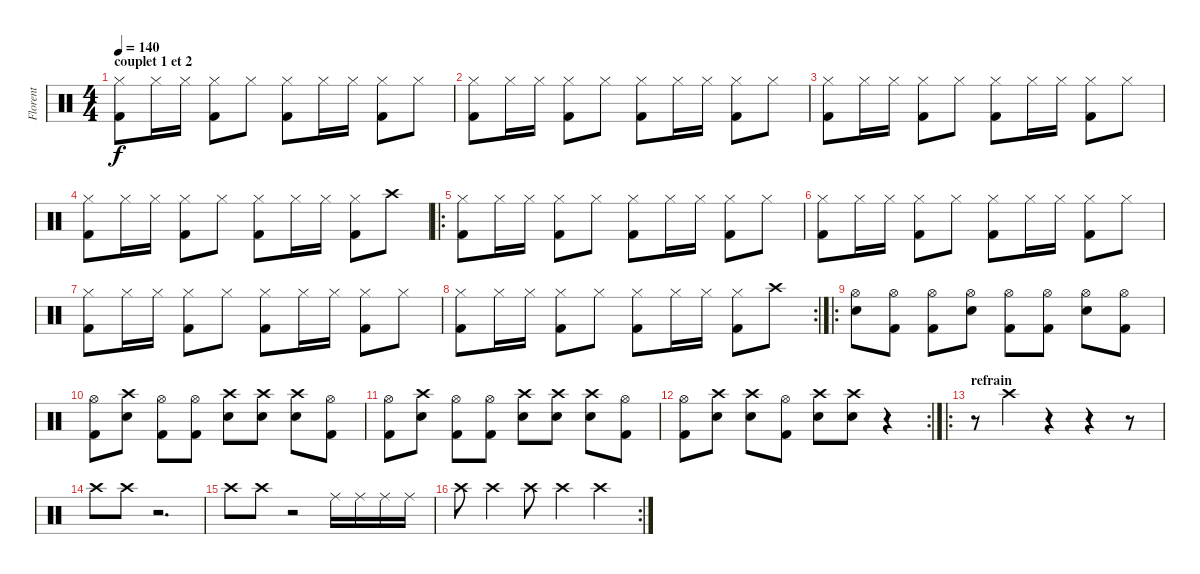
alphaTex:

\track ("Florent" "Florent") {instrument percussion}
\staff {score}
\articulation defaults
\ts (4 4)
\section ("" "couplet 1 et 2")
\tempo 140
\clef neutral
\ks c
("Hi-Hat (closed)" "Kick (hit) 2").8{dy f} "Hi-Hat (closed)".16 "Hi-Hat (closed)".16 ("Hi-Hat (closed)" "Kick (hit) 2").8 "Hi-Hat (closed)".8 ("Hi-Hat (closed)" "Kick (hit) 2").8 "Hi-Hat (closed)".16 "Hi-Hat (closed)".16 ("Hi-Hat (closed)" "Kick (hit) 2").8 "Hi-Hat (closed)".8 |
("Hi-Hat (closed)" "Kick (hit) 2").8 "Hi-Hat (closed)".16 "Hi-Hat (closed)".16 ("Hi-Hat (closed)" "Kick (hit) 2").8 "Hi-Hat (closed)".8 ("Hi-Hat (closed)" "Kick (hit) 2").8 "Hi-Hat (closed)".16 "Hi-Hat (closed)".16 ("Hi-Hat (closed)" "Kick (hit) 2").8 "Hi-Hat (closed)".8 |
("Hi-Hat (closed)" "Kick (hit) 2").8 "Hi-Hat (closed)".16 "Hi-Hat (closed)".16 ("Hi-Hat (closed)" "Kick (hit) 2").8 "Hi-Hat (closed)".8 ("Hi-Hat (closed)" "Kick (hit) 2").8 "Hi-Hat (closed)".16 "Hi-Hat (closed)".16 ("Hi-Hat (closed)" "Kick (hit) 2").8 "Hi-Hat (closed)".8 |
("Hi-Hat (closed)" "Kick (hit) 2").8 "Hi-Hat (closed)".16 "Hi-Hat (closed)".16 ("Hi-Hat (closed)" "Kick (hit) 2").8 "Hi-Hat (closed)".8 ("Hi-Hat (closed)" "Kick (hit) 2").8 "Hi-Hat (closed)".16 "Hi-Hat (closed)".16 ("Hi-Hat (closed)" "Kick (hit) 2").8 "Crash high (hit)".8 |
\ro
("Hi-Hat (closed)" "Kick (hit) 2").8 "Hi-Hat (closed)".16 "Hi-Hat (closed)".16 ("Hi-Hat (closed)" "Kick (hit) 2").8 "Hi-Hat (closed)".8 ("Hi-Hat (closed)" "Kick (hit) 2").8 "Hi-Hat (closed)".16 "Hi-Hat (closed)".16 ("Hi-Hat (closed)" "Kick (hit) 2").8 "Hi-Hat (closed)".8 |
("Hi-Hat (closed)" "Kick (hit) 2").8 "Hi-Hat (closed)".16 "Hi-Hat (closed)".16 ("Hi-Hat (closed)" "Kick (hit) 2").8 "Hi-Hat (closed)".8 ("Hi-Hat (closed)" "Kick (hit) 2").8 "Hi-Hat (closed)".16 "Hi-Hat (closed)".16 ("Hi-Hat (closed)" "Kick (hit) 2").8 "Hi-Hat (closed)".8 |
("Hi-Hat (closed)" "Kick (hit) 2").8 "Hi-Hat (closed)".16 "Hi-Hat (closed)".16 ("Hi-Hat (closed)" "Kick (hit) 2").8 "Hi-Hat (closed)".8 ("Hi-Hat (closed)" "Kick (hit) 2").8 "Hi-Hat (closed)".16 "Hi-Hat (closed)".16 ("Hi-Hat (closed)" "Kick (hit) 2").8 "Hi-Hat (closed)".8 |
\rc 2
("Hi-Hat (closed)" "Kick (hit) 2").8 "Hi-Hat (closed)".16 "Hi-Hat (closed)".16 ("Hi-Hat (closed)" "Kick (hit) 2").8 "Hi-Hat (closed)".8 ("Hi-Hat (closed)" "Kick (hit) 2").8 "Hi-Hat (closed)".16 "Hi-Hat (closed)".16 ("Hi-Hat (closed)" "Kick (hit) 2").8 "Crash high (hit)".8 |
\ro
("Hi-Hat (open)" "Snare (hit) 2").8 ("Hi-Hat (open)" "Kick (hit) 2").8 ("Hi-Hat (open)" "Kick (hit) 2").8 ("Hi-Hat (open)" "Snare (hit) 2").8 ("Hi-Hat (open)" "Kick (hit) 2").8 ("Hi-Hat (open)" "Kick (hit) 2").8 ("Hi-Hat (open)" "Snare (hit) 2").8 ("Hi-Hat (open)" "Kick (hit) 2").8 |
("Hi-Hat (open)" "Kick (hit) 2").8 ("Crash high (hit)" "Snare (hit) 2").8 ("Hi-Hat (open)" "Kick (hit) 2").8 ("Hi-Hat (open)" "Kick (hit) 2").8 ("Crash high (hit)" "Snare (hit) 2").8 ("Crash high (hit)" "Snare (hit) 2").8 ("Crash high (hit)" "Snare (hit) 2").8 ("Hi-Hat (open)" "Kick (hit) 2").8 |
("Hi-Hat (open)" "Kick (hit) 2").8 ("Crash high (hit)" "Snare (hit) 2").8 ("Hi-Hat (open)" "Kick (hit) 2").8 ("Hi-Hat (open)" "Kick (hit) 2").8 ("Crash high (hit)" "Snare (hit) 2").8 ("Crash high (hit)" "Snare (hit) 2").8 ("Crash high (hit)" "Snare (hit) 2").8 ("Hi-Hat (open)" "Kick (hit) 2").8 |
\rc 2
("Hi-Hat (open)" "Kick (hit) 2").8 ("Crash high (hit)" "Snare (hit) 2").8 ("Crash high (hit)" "Snare (hit) 2").8 ("Hi-Hat (open)" "Kick (hit) 2").8 ("Crash high (hit)" "Snare (hit) 2").8 ("Crash high (hit)" "Snare (hit) 2").8 r.4 |
\ro
\section ("" "refrain")
r.8 "Crash high (hit)".4 r.4 r.4 r.8 |
"Crash high (hit)".8 "Crash high (hit)".8 r.2{d} |
"Crash high (hit)".8 "Crash high (hit)".8 r.2 "Ride (middle)".16 "Ride (middle)".16 "Ride (middle)".16 "Ride (middle)".16 |
\rc 2 "Crash high (hit)".8 "Crash high (hit)".4 "Crash high (hit)".8 "Crash high (hit)".4 "Crash high (hit)".4
